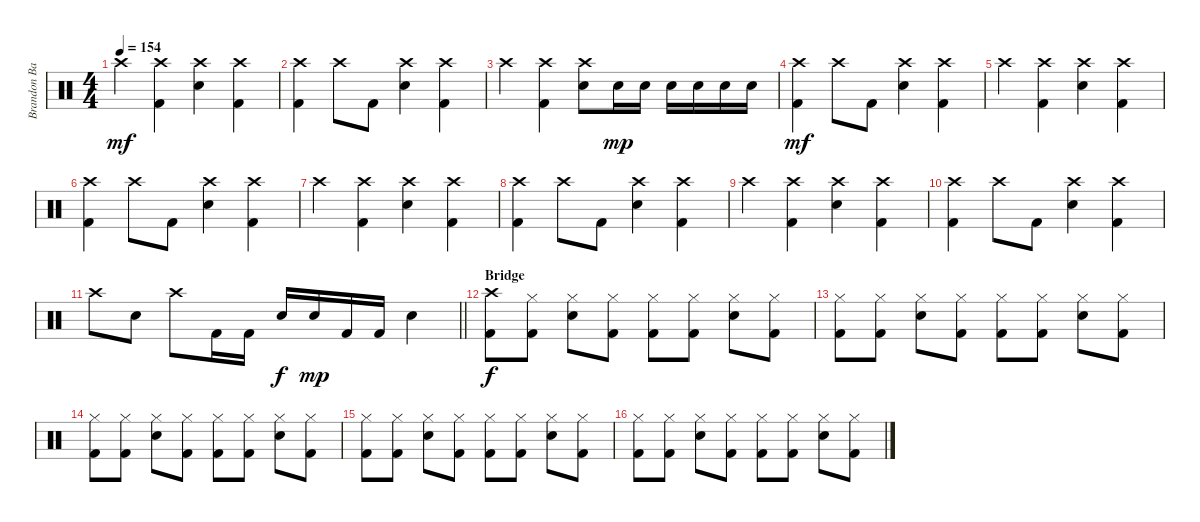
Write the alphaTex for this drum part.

\track ("Brandon Barnes - Drums" "Brandon Ba") {instrument percussion}
\staff {score}
\articulation defaults
\ts (4 4)
\tempo 154
\clef neutral
\ks c "Crash high (hit)".4{dy mf}
("Kick (hit) 2" "Crash high (hit)").4 ("Snare (hit) 2" "Crash high (hit)").4 ("Kick (hit) 2" "Crash high (hit)").4 |
("Crash high (hit)" "Kick (hit) 2").4 "Crash high (hit)".8 "Kick (hit) 2".8 ("Crash high (hit)" "Snare (hit) 2").4 ("Kick (hit) 2" "Crash high (hit)").4 |
"Crash high (hit)".4 ("Kick (hit) 2" "Crash high (hit)").4 ("Snare (hit) 2" "Crash high (hit)").8 "Snare (hit) 2".16{dy mp} "Snare (hit) 2".16 "Snare (hit) 2".16 "Snare (hit) 2".16 "Snare (hit) 2".16 "Snare (hit) 2".16 |
("Crash high (hit)" "Kick (hit) 2").4{dy mf} "Crash high (hit)".8 "Kick (hit) 2".8 ("Crash high (hit)" "Snare (hit) 2").4 ("Kick (hit) 2" "Crash high (hit)").4 |
"Crash high (hit)".4 ("Kick (hit) 2" "Crash high (hit)").4 ("Snare (hit) 2" "Crash high (hit)").4 ("Kick (hit) 2" "Crash high (hit)").4 |
("Crash high (hit)" "Kick (hit) 2").4 "Crash high (hit)".8 "Kick (hit) 2".8 ("Crash high (hit)" "Snare (hit) 2").4 ("Kick (hit) 2" "Crash high (hit)").4 |
"Crash high (hit)".4 ("Kick (hit) 2" "Crash high (hit)").4 ("Snare (hit) 2" "Crash high (hit)").4 ("Kick (hit) 2" "Crash high (hit)").4 |
("Crash high (hit)" "Kick (hit) 2").4 "Crash high (hit)".8 "Kick (hit) 2".8 ("Crash high (hit)" "Snare (hit) 2").4 ("Kick (hit) 2" "Crash high (hit)").4 |
"Crash high (hit)".4 ("Kick (hit) 2" "Crash high (hit)").4 ("Snare (hit) 2" "Crash high (hit)").4 ("Kick (hit) 2" "Crash high (hit)").4 |
("Crash high (hit)" "Kick (hit) 2").4 "Crash high (hit)".8 "Kick (hit) 2".8 ("Crash high (hit)" "Snare (hit) 2").4 ("Kick (hit) 2" "Crash high (hit)").4 |
\barLineRight lightlight "Crash high (hit)".8 "Snare (hit) 2".8 "Crash high (hit)".8 "Kick (hit) 2".16 "Kick (hit) 2".16 "Snare (hit) 2".16{dy f} "Snare (hit) 2".16{dy mp} "Kick (hit) 2".16 "Kick (hit) 2".16 "Snare (hit) 2".4
|
\section ("" "Bridge")
("Crash high (hit)" "Kick (hit) 2").8{dy f} ("Kick (hit) 2" "Hi-Hat (closed)").8 ("Snare (hit) 2" "Hi-Hat (closed)").8 ("Kick (hit) 2" "Hi-Hat (closed)").8 ("Kick (hit) 2" "Hi-Hat (closed)").8 ("Kick (hit) 2" "Hi-Hat (closed)").8 ("Snare (hit) 2" "Hi-Hat (closed)").8 ("Kick (hit) 2" "Hi-Hat (closed)").8 |
("Kick (hit) 2" "Hi-Hat (closed)").8 ("Kick (hit) 2" "Hi-Hat (closed)").8 ("Snare (hit) 2" "Hi-Hat (closed)").8 ("Kick (hit) 2" "Hi-Hat (closed)").8 ("Kick (hit) 2" "Hi-Hat (closed)").8 ("Kick (hit) 2" "Hi-Hat (closed)").8 ("Snare (hit) 2" "Hi-Hat (closed)").8 ("Kick (hit) 2" "Hi-Hat (closed)").8 |
("Kick (hit) 2" "Hi-Hat (closed)").8 ("Kick (hit) 2" "Hi-Hat (closed)").8 ("Snare (hit) 2" "Hi-Hat (closed)").8 ("Kick (hit) 2" "Hi-Hat (closed)").8 ("Kick (hit) 2" "Hi-Hat (closed)").8 ("Kick (hit) 2" "Hi-Hat (closed)").8 ("Snare (hit) 2" "Hi-Hat (closed)").8 ("Kick (hit) 2" "Hi-Hat (closed)").8 |
("Kick (hit) 2" "Hi-Hat (closed)").8 ("Kick (hit) 2" "Hi-Hat (closed)").8 ("Snare (hit) 2" "Hi-Hat (closed)").8 ("Kick (hit) 2" "Hi-Hat (closed)").8 ("Kick (hit) 2" "Hi-Hat (closed)").8 ("Kick (hit) 2" "Hi-Hat (closed)").8 ("Snare (hit) 2" "Hi-Hat (closed)").8 ("Kick (hit) 2" "Hi-Hat (closed)").8 |
("Kick (hit) 2" "Hi-Hat (closed)").8 ("Kick (hit) 2" "Hi-Hat (closed)").8 ("Snare (hit) 2" "Hi-Hat (closed)").8 ("Kick (hit) 2" "Hi-Hat (closed)").8 ("Kick (hit) 2" "Hi-Hat (closed)").8 ("Kick (hit) 2" "Hi-Hat (closed)").8 ("Snare (hit) 2" "Hi-Hat (closed)").8 ("Kick (hit) 2" "Hi-Hat (closed)").8
